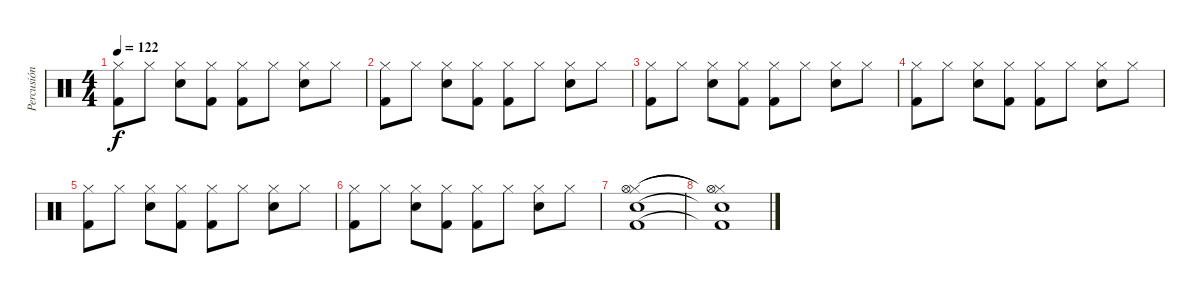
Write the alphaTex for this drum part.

\track ("Percusión" "Percusión") {instrument percussion}
\staff {score}
\articulation defaults
\ts (4 4)
\tempo 122
\clef neutral
\ks c
("Hi-Hat (closed)" "Kick (hit) 2").8{dy f} "Hi-Hat (closed)".8 ("Hi-Hat (closed)" "Electric Snare (hit)").8 ("Hi-Hat (closed)" "Kick (hit) 2").8 ("Hi-Hat (closed)" "Kick (hit) 2").8 "Hi-Hat (closed)".8 ("Hi-Hat (closed)" "Electric Snare (hit)").8 "Hi-Hat (closed)".8 |
("Hi-Hat (closed)" "Kick (hit) 2").8 "Hi-Hat (closed)".8 ("Hi-Hat (closed)" "Electric Snare (hit)").8 ("Hi-Hat (closed)" "Kick (hit) 2").8 ("Hi-Hat (closed)" "Kick (hit) 2").8 "Hi-Hat (closed)".8 ("Hi-Hat (closed)" "Electric Snare (hit)").8 "Hi-Hat (closed)".8 |
("Hi-Hat (closed)" "Kick (hit) 2").8 "Hi-Hat (closed)".8 ("Hi-Hat (closed)" "Electric Snare (hit)").8 ("Hi-Hat (closed)" "Kick (hit) 2").8 ("Hi-Hat (closed)" "Kick (hit) 2").8 "Hi-Hat (closed)".8 ("Hi-Hat (closed)" "Electric Snare (hit)").8 "Hi-Hat (closed)".8 |
("Hi-Hat (closed)" "Kick (hit) 2").8 "Hi-Hat (closed)".8 ("Hi-Hat (closed)" "Electric Snare (hit)").8 ("Hi-Hat (closed)" "Kick (hit) 2").8 ("Hi-Hat (closed)" "Kick (hit) 2").8 "Hi-Hat (closed)".8 ("Hi-Hat (closed)" "Electric Snare (hit)").8 "Hi-Hat (closed)".8 |
("Hi-Hat (closed)" "Kick (hit) 2").8 "Hi-Hat (closed)".8 ("Hi-Hat (closed)" "Electric Snare (hit)").8 ("Hi-Hat (closed)" "Kick (hit) 2").8 ("Hi-Hat (closed)" "Kick (hit) 2").8 "Hi-Hat (closed)".8 ("Hi-Hat (closed)" "Electric Snare (hit)").8 "Hi-Hat (closed)".8 |
("Hi-Hat (closed)" "Kick (hit) 2").8 "Hi-Hat (closed)".8 ("Hi-Hat (closed)" "Electric Snare (hit)").8 ("Hi-Hat (closed)" "Kick (hit) 2").8 ("Hi-Hat (closed)" "Kick (hit) 2").8 "Hi-Hat (closed)".8 ("Hi-Hat (closed)" "Electric Snare (hit)").8 "Hi-Hat (closed)".8 |
("Hi-Hat (closed)" "Electric Snare (hit)" "Hi-Hat (open)" "Kick (hit) 2").1 |
("Hi-Hat (closed)"{t} "Electric Snare (hit)"{t} "Hi-Hat (open)"{t} "Kick (hit) 2"{t}).1
